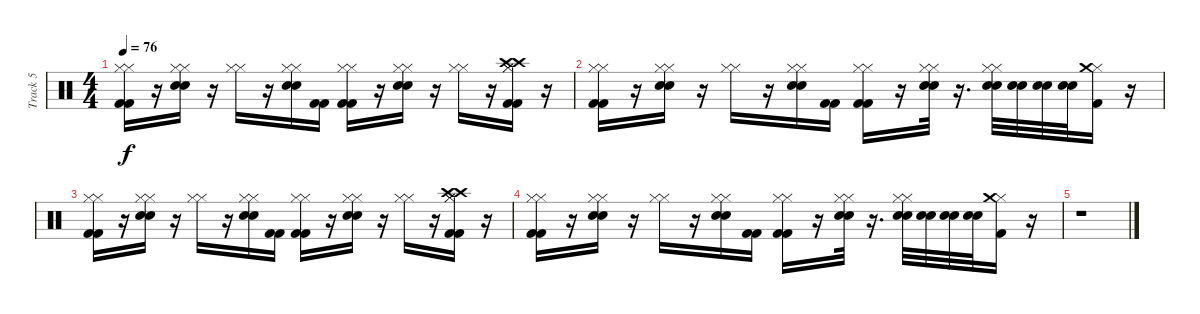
\track ("Track 5" "Track 5") {instrument percussion}
\staff {score}
\articulation defaults
\ts (4 4)
\tempo 76
\clef neutral
\ks c
("Kick (hit) 2" "Hi-Hat (closed)" "Kick (hit) 2" "Hi-Hat (closed)").16{dy f} r.16 ("Electric Snare (hit)" "Hi-Hat (closed)" "Electric Snare (hit)" "Hi-Hat (closed)").16 r.16 ("Hi-Hat (closed)" "Hi-Hat (closed)").16 r.16 ("Hi-Hat (closed)" "Electric Snare (hit)" "Hi-Hat (closed)" "Electric Snare (hit)").16 ("Kick (hit) 2" "Kick (hit) 2").16 ("Hi-Hat (closed)" "Kick (hit) 2" "Hi-Hat (closed)" "Kick (hit) 2").16 r.16 ("Electric Snare (hit)" "Hi-Hat (closed)" "Electric Snare (hit)" "Hi-Hat (closed)").16 r.16 ("Hi-Hat (closed)" "Hi-Hat (closed)").16 r.16 ("Hi-Hat (closed)" "Kick (hit) 2" "Crash high (hit)" "Hi-Hat (closed)" "Kick (hit) 2" "Crash high (hit)").16 r.16 |
("Hi-Hat (closed)" "Kick (hit) 2" "Hi-Hat (closed)" "Kick (hit) 2").16 r.16 ("Hi-Hat (closed)" "Electric Snare (hit)" "Hi-Hat (closed)" "Electric Snare (hit)").16 r.16 ("Hi-Hat (closed)" "Hi-Hat (closed)").16 r.16 ("Hi-Hat (closed)" "Electric Snare (hit)" "Hi-Hat (closed)" "Electric Snare (hit)").16 ("Kick (hit) 2" "Kick (hit) 2").16 ("Hi-Hat (closed)" "Kick (hit) 2" "Hi-Hat (closed)" "Kick (hit) 2").16 r.16 ("Hi-Hat (closed)" "Electric Snare (hit)" "Hi-Hat (closed)" "Electric Snare (hit)").32 r.16{d} ("Hi-Hat (closed)" "Electric Snare (hit)" "Hi-Hat (closed)" "Electric Snare (hit)").32 ("Electric Snare (hit)" "Electric Snare (hit)").32 ("Electric Snare (hit)" "Electric Snare (hit)").32 ("Electric Snare (hit)" "Electric Snare (hit)").32 ("Kick (hit) 2" "Hi-Hat (closed)" "Crash medium (hit)").16 r.16 |
("Kick (hit) 2" "Hi-Hat (closed)" "Kick (hit) 2" "Hi-Hat (closed)").16 r.16 ("Electric Snare (hit)" "Hi-Hat (closed)" "Electric Snare (hit)" "Hi-Hat (closed)").16 r.16 ("Hi-Hat (closed)" "Hi-Hat (closed)").16 r.16 ("Hi-Hat (closed)" "Electric Snare (hit)" "Hi-Hat (closed)" "Electric Snare (hit)").16 ("Kick (hit) 2" "Kick (hit) 2").16 ("Hi-Hat (closed)" "Kick (hit) 2" "Hi-Hat (closed)" "Kick (hit) 2").16 r.16 ("Electric Snare (hit)" "Hi-Hat (closed)" "Electric Snare (hit)" "Hi-Hat (closed)").16 r.16 ("Hi-Hat (closed)" "Hi-Hat (closed)").16 r.16 ("Hi-Hat (closed)" "Kick (hit) 2" "Crash high (hit)" "Hi-Hat (closed)" "Kick (hit) 2" "Crash high (hit)").16 r.16 |
("Hi-Hat (closed)" "Kick (hit) 2" "Hi-Hat (closed)" "Kick (hit) 2").16 r.16 ("Hi-Hat (closed)" "Electric Snare (hit)" "Hi-Hat (closed)" "Electric Snare (hit)").16 r.16 ("Hi-Hat (closed)" "Hi-Hat (closed)").16 r.16 ("Hi-Hat (closed)" "Electric Snare (hit)" "Hi-Hat (closed)" "Electric Snare (hit)").16 ("Kick (hit) 2" "Kick (hit) 2").16 ("Hi-Hat (closed)" "Kick (hit) 2" "Hi-Hat (closed)" "Kick (hit) 2").16 r.16 ("Hi-Hat (closed)" "Electric Snare (hit)" "Hi-Hat (closed)" "Electric Snare (hit)").32 r.16{d} ("Hi-Hat (closed)" "Electric Snare (hit)" "Hi-Hat (closed)" "Electric Snare (hit)").32 ("Electric Snare (hit)" "Electric Snare (hit)").32 ("Electric Snare (hit)" "Electric Snare (hit)").32 ("Electric Snare (hit)" "Electric Snare (hit)").32 ("Kick (hit) 2" "Hi-Hat (closed)" "Crash medium (hit)").16 r.16 |
r.1
